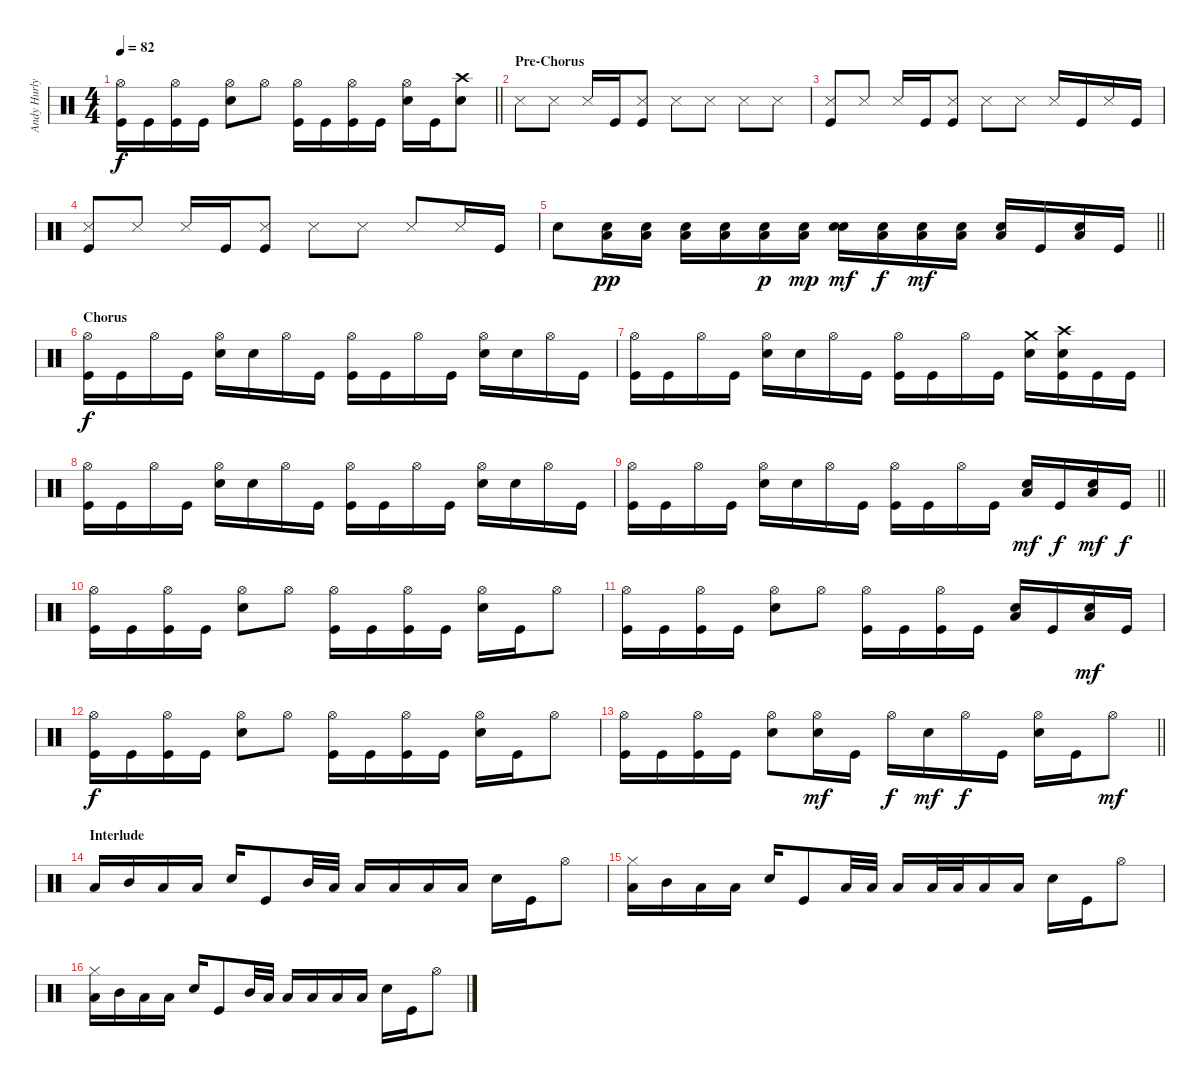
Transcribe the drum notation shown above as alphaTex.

\track ("Andy Hurly (Drums)" "Andy Hurly") {instrument percussion}
\staff {score}
\articulation defaults
\ts (4 4)
\tempo 82
\clef neutral
\barLineRight lightlight
\ks c
("Hi-Hat (open)" "Kick (hit)").16{dy f} "Kick (hit)".16 ("Hi-Hat (open)" "Kick (hit)").16 "Kick (hit)".16 ("Hi-Hat (open)" "Electric Snare (hit)").8 "Hi-Hat (open)".8 ("Hi-Hat (open)" "Kick (hit)").16 "Kick (hit)".16 ("Hi-Hat (open)" "Kick (hit)").16 "Kick (hit)".16 ("Hi-Hat (open)" "Electric Snare (hit)").16 "Kick (hit)".16 ("Crash high (hit)" "Electric Snare (hit)").8 |
\section ("" "Pre-Chorus")
"Snare (side stick) 3".8 "Snare (side stick) 3".8 "Snare (side stick) 3".16 "Kick (hit)".16 ("Snare (side stick) 3" "Kick (hit)").8 "Snare (side stick) 3".8 "Snare (side stick) 3".8 "Snare (side stick) 3".8 "Snare (side stick) 3".8 |
("Snare (side stick) 3" "Kick (hit)").8 "Snare (side stick) 3".8 "Snare (side stick) 3".16 "Kick (hit)".16 ("Snare (side stick) 3" "Kick (hit)").8 "Snare (side stick) 3".8 "Snare (side stick) 3".8 "Snare (side stick) 3".16 "Kick (hit)".16 "Snare (side stick) 3".16 "Kick (hit)".16 |
("Snare (side stick) 3" "Kick (hit)").8 "Snare (side stick) 3".8 "Snare (side stick) 3".16 "Kick (hit)".16 ("Snare (side stick) 3" "Kick (hit)").8 "Snare (side stick) 3".8 "Snare (side stick) 3".8 "Snare (side stick) 3".8 "Snare (side stick) 3".16 "Kick (hit)".16 |
\barLineRight lightlight "Electric Snare (hit)".8
("Low Floor Tom (hit)" "Electric Snare (hit)").16{dy pp} ("Low Floor Tom (hit)" "Electric Snare (hit)").16 ("Low Floor Tom (hit)" "Electric Snare (hit)").16 ("Low Floor Tom (hit)" "Electric Snare (hit)").16 ("Low Floor Tom (hit)" "Electric Snare (hit)").16{dy p} ("Low Floor Tom (hit)" "Electric Snare (hit)").16{dy mp} ("Snare (hit)" "Electric Snare (hit)").16{dy mf} ("Low Floor Tom (hit)" "Electric Snare (hit)").16{dy f} ("Low Floor Tom (hit)" "Electric Snare (hit)").16{dy mf} ("Low Floor Tom (hit)" "Electric Snare (hit)").16 ("Low Floor Tom (hit)" "Electric Snare (hit)").16 "Kick (hit)".16 ("Low Floor Tom (hit)" "Electric Snare (hit)").16 "Kick (hit)".16 |
\section ("" "Chorus")
("Hi-Hat (open)" "Kick (hit)").16{dy f} "Kick (hit)".16 "Hi-Hat (open)".16 "Kick (hit)".16 ("Hi-Hat (open)" "Electric Snare (hit)").16 "Electric Snare (hit)".16 "Hi-Hat (open)".16 "Kick (hit)".16 ("Hi-Hat (open)" "Kick (hit)").16 "Kick (hit)".16 "Hi-Hat (open)".16 "Kick (hit)".16 ("Hi-Hat (open)" "Electric Snare (hit)").16 "Electric Snare (hit)".16 "Hi-Hat (open)".16 "Kick (hit)".16 |
("Hi-Hat (open)" "Kick (hit)").16 "Kick (hit)".16 "Hi-Hat (open)".16 "Kick (hit)".16 ("Hi-Hat (open)" "Electric Snare (hit)").16 "Electric Snare (hit)".16 "Hi-Hat (open)".16 "Kick (hit)".16 ("Hi-Hat (open)" "Kick (hit)").16 "Kick (hit)".16 "Hi-Hat (open)".16 "Kick (hit)".16 ("Crash medium (hit)" "Electric Snare (hit)").16 ("Crash high (hit)" "Electric Snare (hit)" "Kick (hit)").16 "Kick (hit)".16 "Kick (hit)".16 |
("Hi-Hat (open)" "Kick (hit)").16 "Kick (hit)".16 "Hi-Hat (open)".16 "Kick (hit)".16 ("Hi-Hat (open)" "Electric Snare (hit)").16 "Electric Snare (hit)".16 "Hi-Hat (open)".16 "Kick (hit)".16 ("Hi-Hat (open)" "Kick (hit)").16 "Kick (hit)".16 "Hi-Hat (open)".16 "Kick (hit)".16 ("Hi-Hat (open)" "Electric Snare (hit)").16 "Electric Snare (hit)".16 "Hi-Hat (open)".16 "Kick (hit)".16 |
\barLineRight lightlight
("Hi-Hat (open)" "Kick (hit)").16 "Kick (hit)".16 "Hi-Hat (open)".16 "Kick (hit)".16 ("Hi-Hat (open)" "Electric Snare (hit)").16 "Electric Snare (hit)".16 "Hi-Hat (open)".16 "Kick (hit)".16 ("Hi-Hat (open)" "Kick (hit)").16 "Kick (hit)".16 "Hi-Hat (open)".16 "Kick (hit)".16 ("Low Floor Tom (hit)" "Electric Snare (hit)").16{dy mf} "Kick (hit)".16{dy f} ("Low Floor Tom (hit)" "Electric Snare (hit)").16{dy mf} "Kick (hit)".16{dy f} |
("Hi-Hat (open)" "Kick (hit)").16 "Kick (hit)".16 ("Hi-Hat (open)" "Kick (hit)").16 "Kick (hit)".16 ("Hi-Hat (open)" "Electric Snare (hit)").8 "Hi-Hat (open)".8 ("Hi-Hat (open)" "Kick (hit)").16 "Kick (hit)".16 ("Hi-Hat (open)" "Kick (hit)").16 "Kick (hit)".16 ("Hi-Hat (open)" "Electric Snare (hit)").16 "Kick (hit)".16 "Hi-Hat (open)".8 |
("Hi-Hat (open)" "Kick (hit)").16 "Kick (hit)".16 ("Hi-Hat (open)" "Kick (hit)").16 "Kick (hit)".16 ("Hi-Hat (open)" "Electric Snare (hit)").8 "Hi-Hat (open)".8 ("Hi-Hat (open)" "Kick (hit)").16 "Kick (hit)".16 ("Hi-Hat (open)" "Kick (hit)").16 "Kick (hit)".16 ("Low Floor Tom (hit)" "Electric Snare (hit)").16 "Kick (hit)".16 ("Low Floor Tom (hit)" "Electric Snare (hit)").16{dy mf} "Kick (hit)".16 |
("Hi-Hat (open)" "Kick (hit)").16{dy f} "Kick (hit)".16 ("Hi-Hat (open)" "Kick (hit)").16 "Kick (hit)".16 ("Hi-Hat (open)" "Electric Snare (hit)").8 "Hi-Hat (open)".8 ("Hi-Hat (open)" "Kick (hit)").16 "Kick (hit)".16 ("Hi-Hat (open)" "Kick (hit)").16 "Kick (hit)".16 ("Hi-Hat (open)" "Electric Snare (hit)").16 "Kick (hit)".16 "Hi-Hat (open)".8 |
\barLineRight lightlight
("Hi-Hat (open)" "Kick (hit)").16 "Kick (hit)".16 ("Hi-Hat (open)" "Kick (hit)").16 "Kick (hit)".16 ("Hi-Hat (open)" "Electric Snare (hit)").8 ("Hi-Hat (open)" "Electric Snare (hit)").16{dy mf} "Kick (hit)".16 "Hi-Hat (open)".16{dy f} "Electric Snare (hit)".16{dy mf} "Hi-Hat (open)".16{dy f} "Kick (hit)".16 ("Hi-Hat (open)" "Electric Snare (hit)").16 "Kick (hit)".16 "Hi-Hat (open)".8{dy mf} |
\section ("" "Interlude")
"Low Floor Tom (hit)".16 "Mid Tom (hit)".16 "Low Tom (hit)".16 "Low Floor Tom (hit)".16 "Electric Snare (hit)".16 "Kick (hit)".8 "Mid Tom (hit)".32 "Low Tom (hit)".32 "Low Floor Tom (hit)".16 "Low Floor Tom (hit)".16 "Low Floor Tom (hit)".16 "Low Floor Tom (hit)".16 "Electric Snare (hit)".16 "Kick (hit)".16 "Hi-Hat (open)".8 |
("Low Floor Tom (hit)" "Hi-Hat (closed)").16 "Mid Tom (hit)".16 "Low Tom (hit)".16 "Low Floor Tom (hit)".16 "Electric Snare (hit)".16 "Kick (hit)".8 "Low Floor Tom (hit)".32 "Low Floor Tom (hit)".32 "Low Floor Tom (hit)".16 "Low Floor Tom (hit)".32 "Low Floor Tom (hit)".32 "Low Floor Tom (hit)".16 "Low Floor Tom (hit)".16 "Electric Snare (hit)".16 "Kick (hit)".16 "Hi-Hat (open)".8 |
("Low Floor Tom (hit)" "Hi-Hat (closed)").16 "Mid Tom (hit)".16 "Low Tom (hit)".16 "Low Floor Tom (hit)".16 "Electric Snare (hit)".16 "Kick (hit)".8 "Mid Tom (hit)".32 "Low Tom (hit)".32 "Low Floor Tom (hit)".16 "Low Floor Tom (hit)".16 "Low Floor Tom (hit)".16 "Low Floor Tom (hit)".16 "Electric Snare (hit)".16 "Kick (hit)".16 "Hi-Hat (open)".8
